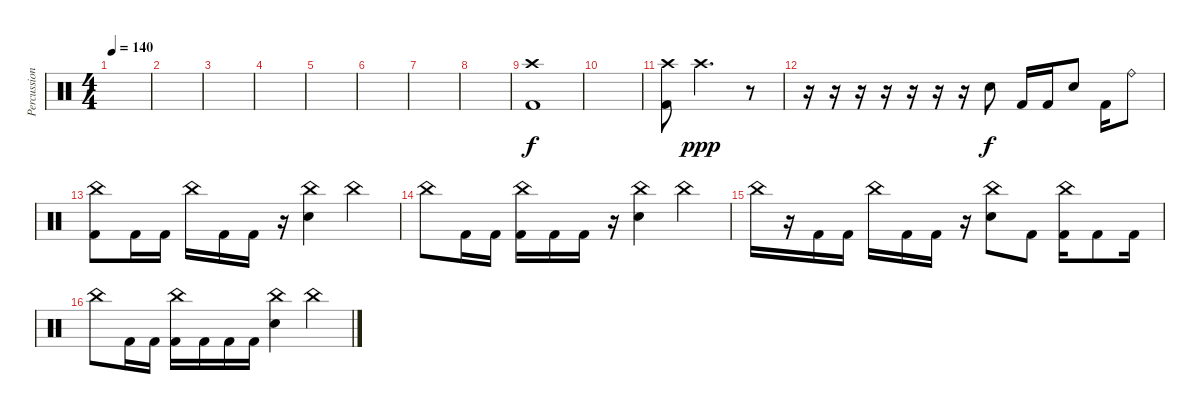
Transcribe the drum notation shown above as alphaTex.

\track ("Percussion" "Percussion") {instrument percussion}
\staff {score}
\articulation defaults
\ts (4 4)
\tempo 140
\clef neutral
\ks c
|
|
|
|
|
|
|
|
("Crash high (hit)" "Kick (hit) 2").1 |
|
("Crash high (hit)" "Kick (hit) 2").8 "Crash high (hit)".2{d dy ppp} r.8 |
r.16 r.16 r.16 r.16 r.16 r.16 r.16 "Electric Snare (hit)".8{dy f} "Kick (hit) 2".16 "Kick (hit) 2".16 "Electric Snare (hit)".8 "Kick (hit) 2".16 "Ride (bell)".8 |
("China (hit)" "Kick (hit) 2").8 "Kick (hit) 2".16 "Kick (hit) 2".16 "China (hit)".16 "Kick (hit) 2".16 "Kick (hit) 2".16 r.16 ("China (hit)" "Electric Snare (hit)").4 "China (hit)".4 |
"China (hit)".8 "Kick (hit) 2".16 "Kick (hit) 2".16 ("China (hit)" "Kick (hit) 2").16 "Kick (hit) 2".16 "Kick (hit) 2".16 r.16 ("China (hit)" "Electric Snare (hit)").4 "China (hit)".4 |
"China (hit)".16 r.16 "Kick (hit) 2".16 "Kick (hit) 2".16 "China (hit)".16 "Kick (hit) 2".16 "Kick (hit) 2".16 r.16 ("China (hit)" "Electric Snare (hit)").8 "Kick (hit) 2".8 ("China (hit)" "Kick (hit) 2").16 "Kick (hit) 2".8 "Kick (hit) 2".16 |
"China (hit)".8 "Kick (hit) 2".16 "Kick (hit) 2".16 ("China (hit)" "Kick (hit) 2").16 "Kick (hit) 2".16 "Kick (hit) 2".16 "Kick (hit) 2".16 ("China (hit)" "Electric Snare (hit)").4 "China (hit)".4
